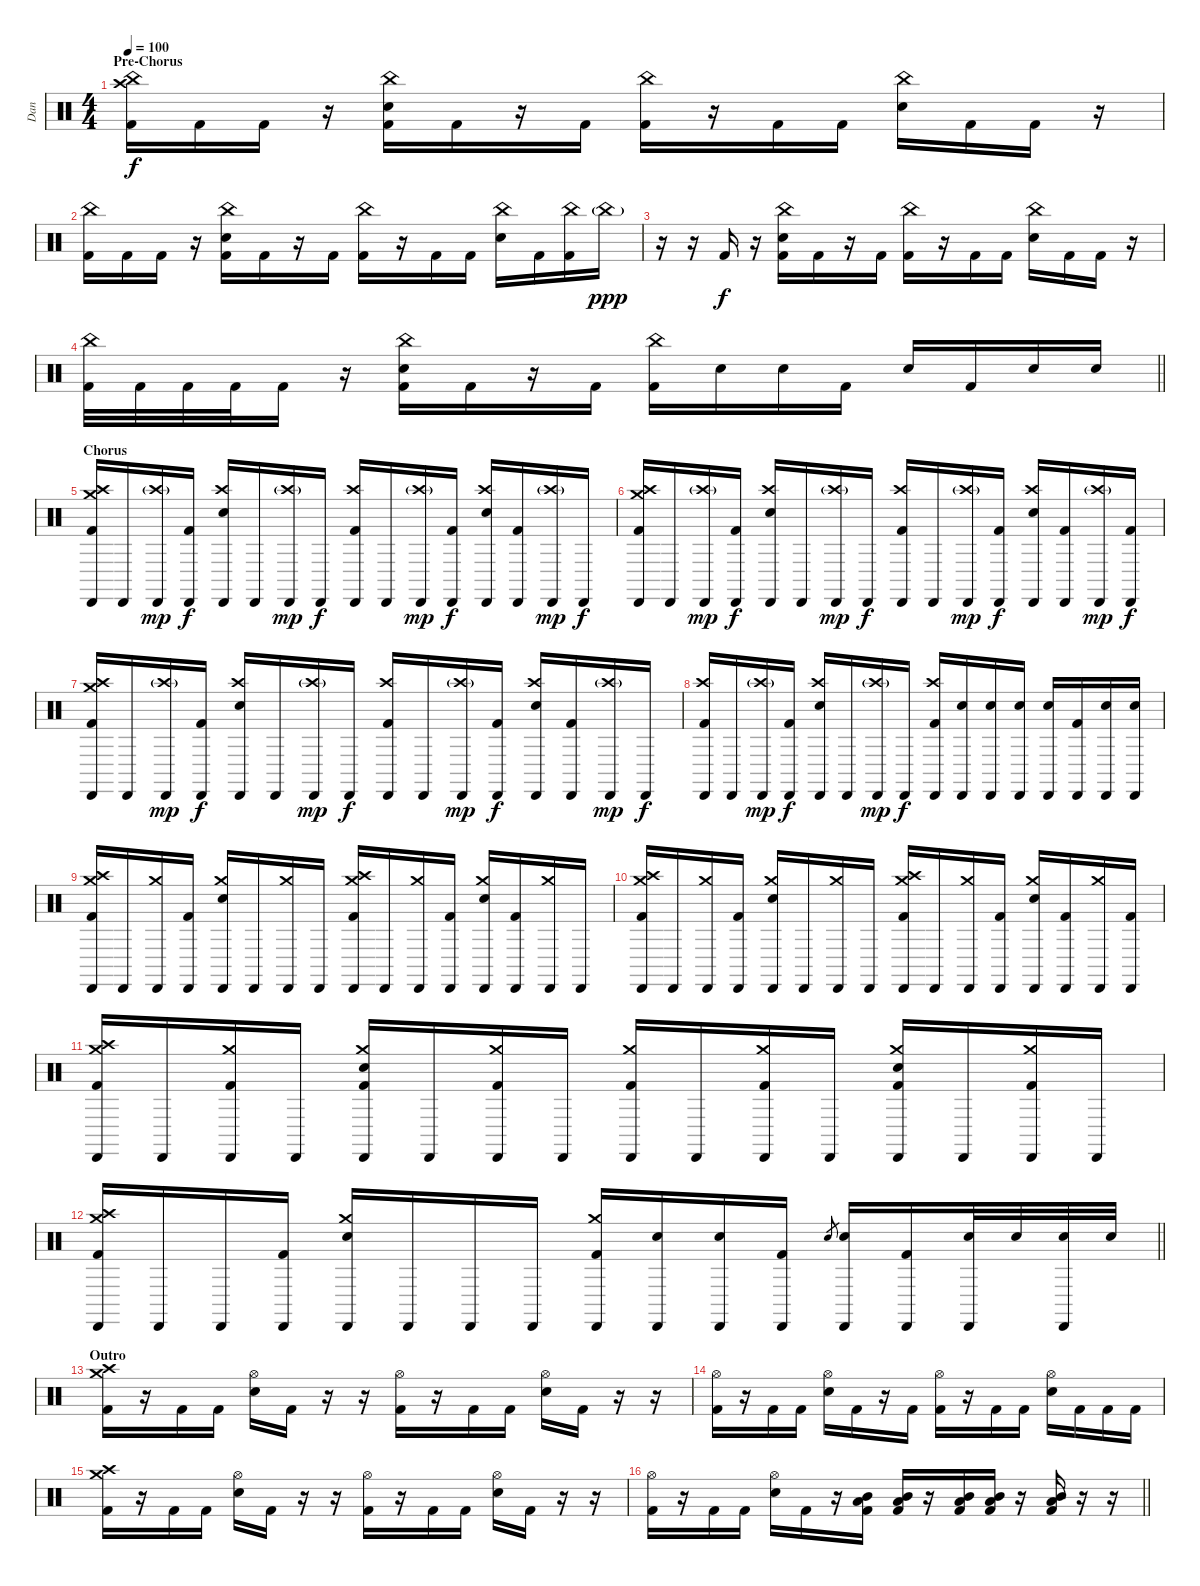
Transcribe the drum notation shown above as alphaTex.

\track ("Dan" "Dan") {instrument percussion}
\staff {score}
\articulation defaults
\ts (4 4)
\section ("" "Pre-Chorus")
\tempo 100
\clef neutral
\ks c
("Crash high (hit)" "China (hit)" "Kick (hit) 2").16{dy f} "Kick (hit) 2".16 "Kick (hit) 2".16 r.16 ("China (hit)" "Snare (hit) 2" "Kick (hit) 2").16 "Kick (hit) 2".16 r.16 "Kick (hit) 2".16 ("China (hit)" "Kick (hit) 2").16 r.16 "Kick (hit) 2".16 "Kick (hit) 2".16 ("China (hit)" "Snare (hit) 2").16 "Kick (hit) 2".16 "Kick (hit) 2".16 r.16 |
("China (hit)" "Kick (hit) 2").16 "Kick (hit) 2".16 "Kick (hit) 2".16 r.16 ("China (hit)" "Snare (hit) 2" "Kick (hit) 2").16 "Kick (hit) 2".16 r.16 "Kick (hit) 2".16 ("China (hit)" "Kick (hit) 2").16 r.16 "Kick (hit) 2".16 "Kick (hit) 2".16 ("China (hit)" "Snare (hit) 2").16 "Kick (hit) 2".16 ("China (hit)" "Kick (hit) 2").16 "China (hit)"{g}.16{dy ppp} |
r.16 r.16 "Kick (hit) 2".16{dy f} r.16 ("China (hit)" "Snare (hit) 2" "Kick (hit) 2").16 "Kick (hit) 2".16 r.16 "Kick (hit) 2".16 ("China (hit)" "Kick (hit) 2").16 r.16 "Kick (hit) 2".16 "Kick (hit) 2".16 ("China (hit)" "Snare (hit) 2").16 "Kick (hit) 2".16 "Kick (hit) 2".16 r.16 |
\barLineRight lightlight
("China (hit)" "Kick (hit) 2").32 "Kick (hit) 2".32 "Kick (hit) 2".32 "Kick (hit) 2".32 "Kick (hit) 2".16 r.16 ("China (hit)" "Snare (hit) 2" "Kick (hit) 2").16 "Kick (hit) 2".16 r.16 "Kick (hit) 2".16 ("China (hit)" "Kick (hit) 2").16 "Snare (hit) 2".16 "Snare (hit) 2".16 "Kick (hit) 2".16 "Snare (hit) 2".16 "Kick (hit) 2".16 "Snare (hit) 2".16 "Snare (hit) 2".16 |
\section ("" "Chorus")
("Cabasa (hit)" "Crash high (hit)" "Crash medium (hit)" "Kick (hit) 2").16 "Cabasa (hit)".16 ("Cabasa (hit)" "Crash high (hit)"{g}).16{dy mp} ("Cabasa (hit)" "Kick (hit) 2").16{dy f} ("Cabasa (hit)" "Crash high (hit)" "Snare (hit) 2").16 "Cabasa (hit)".16 ("Cabasa (hit)" "Crash high (hit)"{g}).16{dy mp} "Cabasa (hit)".16{dy f} ("Cabasa (hit)" "Crash high (hit)" "Kick (hit) 2").16 "Cabasa (hit)".16 ("Cabasa (hit)" "Crash high (hit)"{g}).16{dy mp} ("Cabasa (hit)" "Kick (hit) 2").16{dy f} ("Cabasa (hit)" "Crash high (hit)" "Snare (hit) 2").16 ("Cabasa (hit)" "Kick (hit) 2").16 ("Cabasa (hit)" "Crash high (hit)"{g}).16{dy mp} "Cabasa (hit)".16{dy f} |
("Cabasa (hit)" "Crash high (hit)" "Crash medium (hit)" "Kick (hit) 2").16 "Cabasa (hit)".16 ("Cabasa (hit)" "Crash high (hit)"{g}).16{dy mp} ("Cabasa (hit)" "Kick (hit) 2").16{dy f} ("Cabasa (hit)" "Crash high (hit)" "Snare (hit) 2").16 "Cabasa (hit)".16 ("Cabasa (hit)" "Crash high (hit)"{g}).16{dy mp} "Cabasa (hit)".16{dy f} ("Cabasa (hit)" "Crash high (hit)" "Kick (hit) 2").16 "Cabasa (hit)".16 ("Cabasa (hit)" "Crash high (hit)"{g}).16{dy mp} ("Cabasa (hit)" "Kick (hit) 2").16{dy f} ("Cabasa (hit)" "Crash high (hit)" "Snare (hit) 2").16 ("Cabasa (hit)" "Kick (hit) 2").16 ("Cabasa (hit)" "Crash high (hit)"{g}).16{dy mp} ("Cabasa (hit)" "Kick (hit) 2").16{dy f} |
("Cabasa (hit)" "Crash high (hit)" "Crash medium (hit)" "Kick (hit) 2").16 "Cabasa (hit)".16 ("Cabasa (hit)" "Crash high (hit)"{g}).16{dy mp} ("Cabasa (hit)" "Kick (hit) 2").16{dy f} ("Cabasa (hit)" "Crash high (hit)" "Snare (hit) 2").16 "Cabasa (hit)".16 ("Cabasa (hit)" "Crash high (hit)"{g}).16{dy mp} "Cabasa (hit)".16{dy f} ("Cabasa (hit)" "Crash high (hit)" "Kick (hit) 2").16 "Cabasa (hit)".16 ("Cabasa (hit)" "Crash high (hit)"{g}).16{dy mp} ("Cabasa (hit)" "Kick (hit) 2").16{dy f} ("Cabasa (hit)" "Crash high (hit)" "Snare (hit) 2").16 ("Cabasa (hit)" "Kick (hit) 2").16 ("Cabasa (hit)" "Crash high (hit)"{g}).16{dy mp} "Cabasa (hit)".16{dy f} |
("Cabasa (hit)" "Crash high (hit)" "Kick (hit) 2").16 "Cabasa (hit)".16 ("Cabasa (hit)" "Crash high (hit)"{g}).16{dy mp} ("Cabasa (hit)" "Kick (hit) 2").16{dy f} ("Cabasa (hit)" "Crash high (hit)" "Snare (hit) 2").16 "Cabasa (hit)".16 ("Cabasa (hit)" "Crash high (hit)"{g}).16{dy mp} "Cabasa (hit)".16{dy f} ("Cabasa (hit)" "Crash high (hit)" "Kick (hit) 2").16 ("Cabasa (hit)" "Snare (hit) 2").16 ("Cabasa (hit)" "Snare (hit) 2").16 ("Cabasa (hit)" "Snare (hit) 2").16 ("Cabasa (hit)" "Snare (hit) 2").16 ("Cabasa (hit)" "Kick (hit) 2").16 ("Cabasa (hit)" "Snare (hit) 2").16 ("Cabasa (hit)" "Snare (hit) 2").16 |
("Cabasa (hit)" "Crash high (hit)" "Crash medium (hit)" "Kick (hit) 2").16 "Cabasa (hit)".16 ("Cabasa (hit)" "Crash medium (hit)").16 ("Cabasa (hit)" "Kick (hit) 2").16 ("Cabasa (hit)" "Crash medium (hit)" "Snare (hit) 2").16 "Cabasa (hit)".16 ("Cabasa (hit)" "Crash medium (hit)").16 "Cabasa (hit)".16 ("Cabasa (hit)" "Crash high (hit)" "Crash medium (hit)" "Kick (hit) 2").16 "Cabasa (hit)".16 ("Cabasa (hit)" "Crash medium (hit)").16 ("Cabasa (hit)" "Kick (hit) 2").16 ("Cabasa (hit)" "Crash medium (hit)" "Snare (hit) 2").16 ("Cabasa (hit)" "Kick (hit) 2").16 ("Cabasa (hit)" "Crash medium (hit)").16 "Cabasa (hit)".16 |
("Cabasa (hit)" "Crash high (hit)" "Crash medium (hit)" "Kick (hit) 2").16 "Cabasa (hit)".16 ("Cabasa (hit)" "Crash medium (hit)").16 ("Cabasa (hit)" "Kick (hit) 2").16 ("Cabasa (hit)" "Crash medium (hit)" "Snare (hit) 2").16 "Cabasa (hit)".16 ("Cabasa (hit)" "Crash medium (hit)").16 "Cabasa (hit)".16 ("Cabasa (hit)" "Crash high (hit)" "Crash medium (hit)" "Kick (hit) 2").16 "Cabasa (hit)".16 ("Cabasa (hit)" "Crash medium (hit)").16 ("Cabasa (hit)" "Kick (hit) 2").16 ("Cabasa (hit)" "Crash medium (hit)" "Snare (hit) 2").16 ("Cabasa (hit)" "Kick (hit) 2").16 ("Cabasa (hit)" "Crash medium (hit)").16 ("Cabasa (hit)" "Kick (hit) 2").16 |
("Cabasa (hit)" "Crash high (hit)" "Crash medium (hit)" "Kick (hit) 2").16 "Cabasa (hit)".16 ("Cabasa (hit)" "Crash medium (hit)" "Kick (hit) 2").16 "Cabasa (hit)".16 ("Cabasa (hit)" "Crash medium (hit)" "Snare (hit) 2" "Kick (hit) 2").16 "Cabasa (hit)".16 ("Cabasa (hit)" "Crash medium (hit)" "Kick (hit) 2").16 "Cabasa (hit)".16 ("Cabasa (hit)" "Crash medium (hit)" "Kick (hit) 2").16 "Cabasa (hit)".16 ("Cabasa (hit)" "Crash medium (hit)" "Kick (hit) 2").16 "Cabasa (hit)".16 ("Cabasa (hit)" "Crash medium (hit)" "Snare (hit) 2" "Kick (hit) 2").16 "Cabasa (hit)".16 ("Cabasa (hit)" "Crash medium (hit)" "Kick (hit) 2").16 "Cabasa (hit)".16 |
\barLineRight lightlight
("Cabasa (hit)" "Crash high (hit)" "Crash medium (hit)" "Kick (hit) 2").16 "Cabasa (hit)".16 "Cabasa (hit)".16 ("Cabasa (hit)" "Kick (hit) 2").16 ("Cabasa (hit)" "Crash medium (hit)" "Snare (hit) 2").16 "Cabasa (hit)".16 "Cabasa (hit)".16 "Cabasa (hit)".16 ("Cabasa (hit)" "Crash medium (hit)" "Kick (hit) 2").16 ("Cabasa (hit)" "Snare (hit) 2").16 ("Cabasa (hit)" "Snare (hit) 2").16 ("Cabasa (hit)" "Kick (hit) 2").16 "Snare (hit) 2".8{gr} ("Cabasa (hit)" "Snare (hit) 2").16 ("Cabasa (hit)" "Kick (hit) 2").16 ("Cabasa (hit)" "Snare (hit) 2").32 "Snare (hit) 2".32 ("Cabasa (hit)" "Snare (hit) 2").32 "Snare (hit) 2".32 |
\section ("" "Outro")
("Crash medium (hit)" "Crash high (hit)" "Kick (hit) 2").16 r.16 "Kick (hit) 2".16 "Kick (hit) 2".16 ("Hi-Hat (open)" "Snare (hit) 2").16 "Kick (hit) 2".16 r.16 r.16 ("Hi-Hat (open)" "Kick (hit) 2").16 r.16 "Kick (hit) 2".16 "Kick (hit) 2".16 ("Hi-Hat (open)" "Snare (hit) 2").16 "Kick (hit) 2".16 r.16 r.16 |
("Hi-Hat (open)" "Kick (hit) 2").16 r.16 "Kick (hit) 2".16 "Kick (hit) 2".16 ("Hi-Hat (open)" "Snare (hit) 2").16 "Kick (hit) 2".16 r.16 "Kick (hit) 2".16 ("Hi-Hat (open)" "Kick (hit) 2").16 r.16 "Kick (hit) 2".16 "Kick (hit) 2".16 ("Hi-Hat (open)" "Snare (hit) 2").16 "Kick (hit) 2".16 "Kick (hit) 2".16 "Kick (hit) 2".16 |
("Crash medium (hit)" "Crash high (hit)" "Kick (hit) 2").16 r.16 "Kick (hit) 2".16 "Kick (hit) 2".16 ("Hi-Hat (open)" "Snare (hit) 2").16 "Kick (hit) 2".16 r.16 r.16 ("Hi-Hat (open)" "Kick (hit) 2").16 r.16 "Kick (hit) 2".16 "Kick (hit) 2".16 ("Hi-Hat (open)" "Snare (hit) 2").16 "Kick (hit) 2".16 r.16 r.16 |
\barLineRight lightlight
("Hi-Hat (open)" "Kick (hit) 2").16 r.16 "Kick (hit) 2".16 "Kick (hit) 2".16 ("Hi-Hat (open)" "Snare (hit) 2").16 "Kick (hit) 2".16 r.16 ("Mid Tom (hit)" "Low Tom (hit)" "Kick (hit) 2").16 ("Mid Tom (hit)" "Low Tom (hit)" "Kick (hit) 2").16 r.16 ("Mid Tom (hit)" "Low Tom (hit)" "Kick (hit) 2").16 ("Mid Tom (hit)" "Low Tom (hit)" "Kick (hit) 2").16 r.16 ("Mid Tom (hit)" "Low Tom (hit)" "Kick (hit) 2").16 r.16 r.16
